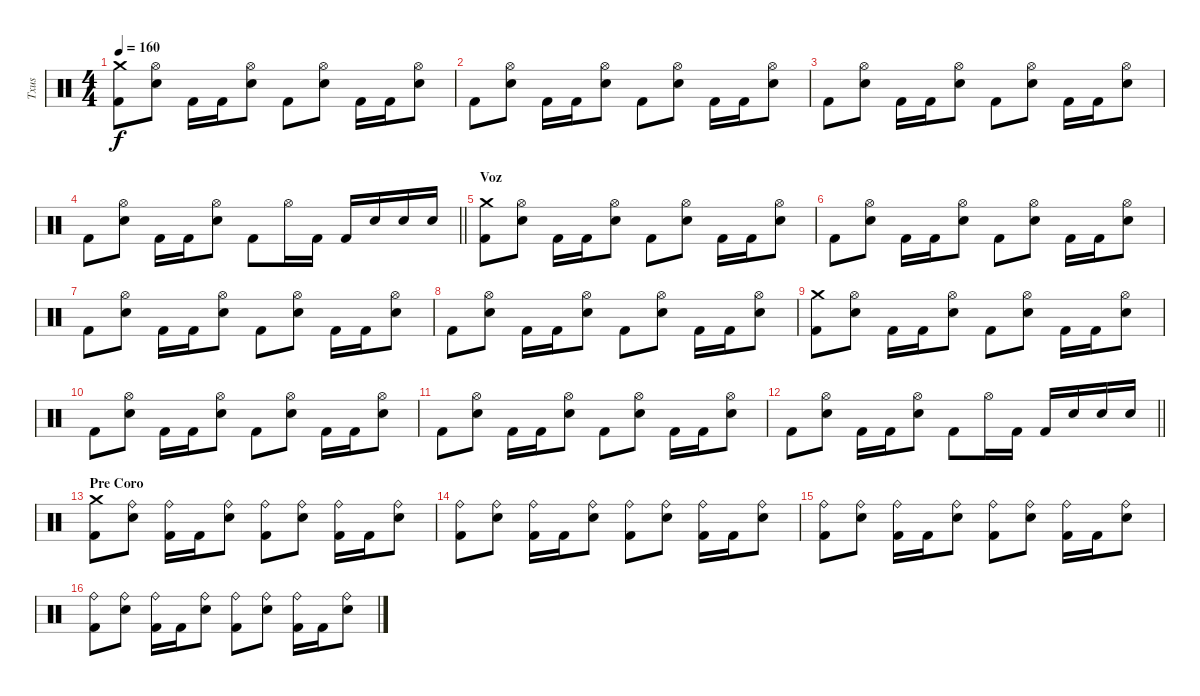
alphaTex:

\track ("Txus" "Txus") {instrument percussion}
\staff {score}
\articulation defaults
\ts (4 4)
\tempo 160
\clef neutral
\ks c
("Crash medium (hit)" "Kick (hit) 2").8{dy f} ("Hi-Hat (open)" "Snare (hit) 2").8 "Kick (hit) 2".16 "Kick (hit) 2".16 ("Hi-Hat (open)" "Snare (hit) 2").8 "Kick (hit) 2".8 ("Hi-Hat (open)" "Snare (hit) 2").8 "Kick (hit) 2".16 "Kick (hit) 2".16 ("Hi-Hat (open)" "Snare (hit) 2").8 |
"Kick (hit) 2".8 ("Hi-Hat (open)" "Snare (hit) 2").8 "Kick (hit) 2".16 "Kick (hit) 2".16 ("Hi-Hat (open)" "Snare (hit) 2").8 "Kick (hit) 2".8 ("Hi-Hat (open)" "Snare (hit) 2").8 "Kick (hit) 2".16 "Kick (hit) 2".16 ("Hi-Hat (open)" "Snare (hit) 2").8 |
"Kick (hit) 2".8 ("Hi-Hat (open)" "Snare (hit) 2").8 "Kick (hit) 2".16 "Kick (hit) 2".16 ("Hi-Hat (open)" "Snare (hit) 2").8 "Kick (hit) 2".8 ("Hi-Hat (open)" "Snare (hit) 2").8 "Kick (hit) 2".16 "Kick (hit) 2".16 ("Hi-Hat (open)" "Snare (hit) 2").8 |
\barLineRight lightlight "Kick (hit) 2".8
("Hi-Hat (open)" "Snare (hit) 2").8 "Kick (hit) 2".16 "Kick (hit) 2".16 ("Hi-Hat (open)" "Snare (hit) 2").8 "Kick (hit) 2".8 "Hi-Hat (open)".16 "Kick (hit) 2".16 "Kick (hit) 2".16 "Snare (hit) 2".16 "Snare (hit) 2".16 "Snare (hit) 2".16 |
\section ("" "Voz")
("Crash medium (hit)" "Kick (hit) 2").8 ("Hi-Hat (open)" "Snare (hit) 2").8 "Kick (hit) 2".16 "Kick (hit) 2".16 ("Hi-Hat (open)" "Snare (hit) 2").8 "Kick (hit) 2".8 ("Hi-Hat (open)" "Snare (hit) 2").8 "Kick (hit) 2".16 "Kick (hit) 2".16 ("Hi-Hat (open)" "Snare (hit) 2").8 |
"Kick (hit) 2".8 ("Hi-Hat (open)" "Snare (hit) 2").8 "Kick (hit) 2".16 "Kick (hit) 2".16 ("Hi-Hat (open)" "Snare (hit) 2").8 "Kick (hit) 2".8 ("Hi-Hat (open)" "Snare (hit) 2").8 "Kick (hit) 2".16 "Kick (hit) 2".16 ("Hi-Hat (open)" "Snare (hit) 2").8 |
"Kick (hit) 2".8 ("Hi-Hat (open)" "Snare (hit) 2").8 "Kick (hit) 2".16 "Kick (hit) 2".16 ("Hi-Hat (open)" "Snare (hit) 2").8 "Kick (hit) 2".8 ("Hi-Hat (open)" "Snare (hit) 2").8 "Kick (hit) 2".16 "Kick (hit) 2".16 ("Hi-Hat (open)" "Snare (hit) 2").8 |
"Kick (hit) 2".8 ("Hi-Hat (open)" "Snare (hit) 2").8 "Kick (hit) 2".16 "Kick (hit) 2".16 ("Hi-Hat (open)" "Snare (hit) 2").8 "Kick (hit) 2".8 ("Hi-Hat (open)" "Snare (hit) 2").8 "Kick (hit) 2".16 "Kick (hit) 2".16 ("Hi-Hat (open)" "Snare (hit) 2").8 |
("Crash medium (hit)" "Kick (hit) 2").8 ("Hi-Hat (open)" "Snare (hit) 2").8 "Kick (hit) 2".16 "Kick (hit) 2".16 ("Hi-Hat (open)" "Snare (hit) 2").8 "Kick (hit) 2".8 ("Hi-Hat (open)" "Snare (hit) 2").8 "Kick (hit) 2".16 "Kick (hit) 2".16 ("Hi-Hat (open)" "Snare (hit) 2").8 |
"Kick (hit) 2".8 ("Hi-Hat (open)" "Snare (hit) 2").8 "Kick (hit) 2".16 "Kick (hit) 2".16 ("Hi-Hat (open)" "Snare (hit) 2").8 "Kick (hit) 2".8 ("Hi-Hat (open)" "Snare (hit) 2").8 "Kick (hit) 2".16 "Kick (hit) 2".16 ("Hi-Hat (open)" "Snare (hit) 2").8 |
"Kick (hit) 2".8 ("Hi-Hat (open)" "Snare (hit) 2").8 "Kick (hit) 2".16 "Kick (hit) 2".16 ("Hi-Hat (open)" "Snare (hit) 2").8 "Kick (hit) 2".8 ("Hi-Hat (open)" "Snare (hit) 2").8 "Kick (hit) 2".16 "Kick (hit) 2".16 ("Hi-Hat (open)" "Snare (hit) 2").8 |
\barLineRight lightlight "Kick (hit) 2".8
("Hi-Hat (open)" "Snare (hit) 2").8 "Kick (hit) 2".16 "Kick (hit) 2".16 ("Hi-Hat (open)" "Snare (hit) 2").8 "Kick (hit) 2".8 "Hi-Hat (open)".16 "Kick (hit) 2".16 "Kick (hit) 2".16 "Snare (hit) 2".16 "Snare (hit) 2".16 "Snare (hit) 2".16 |
\section ("" "Pre Coro")
("Crash medium (hit)" "Kick (hit) 2").8 ("Ride (bell)" "Snare (hit) 2").8 ("Ride (bell)" "Kick (hit) 2").16 "Kick (hit) 2".16 ("Ride (bell)" "Snare (hit) 2").8 ("Ride (bell)" "Kick (hit) 2").8 ("Ride (bell)" "Snare (hit) 2").8 ("Ride (bell)" "Kick (hit) 2").16 "Kick (hit) 2".16 ("Ride (bell)" "Snare (hit) 2").8 |
("Ride (bell)" "Kick (hit) 2").8 ("Ride (bell)" "Snare (hit) 2").8 ("Ride (bell)" "Kick (hit) 2").16 "Kick (hit) 2".16 ("Ride (bell)" "Snare (hit) 2").8 ("Ride (bell)" "Kick (hit) 2").8 ("Ride (bell)" "Snare (hit) 2").8 ("Ride (bell)" "Kick (hit) 2").16 "Kick (hit) 2".16 ("Ride (bell)" "Snare (hit) 2").8 |
("Ride (bell)" "Kick (hit) 2").8 ("Ride (bell)" "Snare (hit) 2").8 ("Ride (bell)" "Kick (hit) 2").16 "Kick (hit) 2".16 ("Ride (bell)" "Snare (hit) 2").8 ("Ride (bell)" "Kick (hit) 2").8 ("Ride (bell)" "Snare (hit) 2").8 ("Ride (bell)" "Kick (hit) 2").16 "Kick (hit) 2".16 ("Ride (bell)" "Snare (hit) 2").8 |
("Ride (bell)" "Kick (hit) 2").8 ("Ride (bell)" "Snare (hit) 2").8 ("Ride (bell)" "Kick (hit) 2").16 "Kick (hit) 2".16 ("Ride (bell)" "Snare (hit) 2").8 ("Ride (bell)" "Kick (hit) 2").8 ("Ride (bell)" "Snare (hit) 2").8 ("Ride (bell)" "Kick (hit) 2").16 "Kick (hit) 2".16 ("Ride (bell)" "Snare (hit) 2").8
